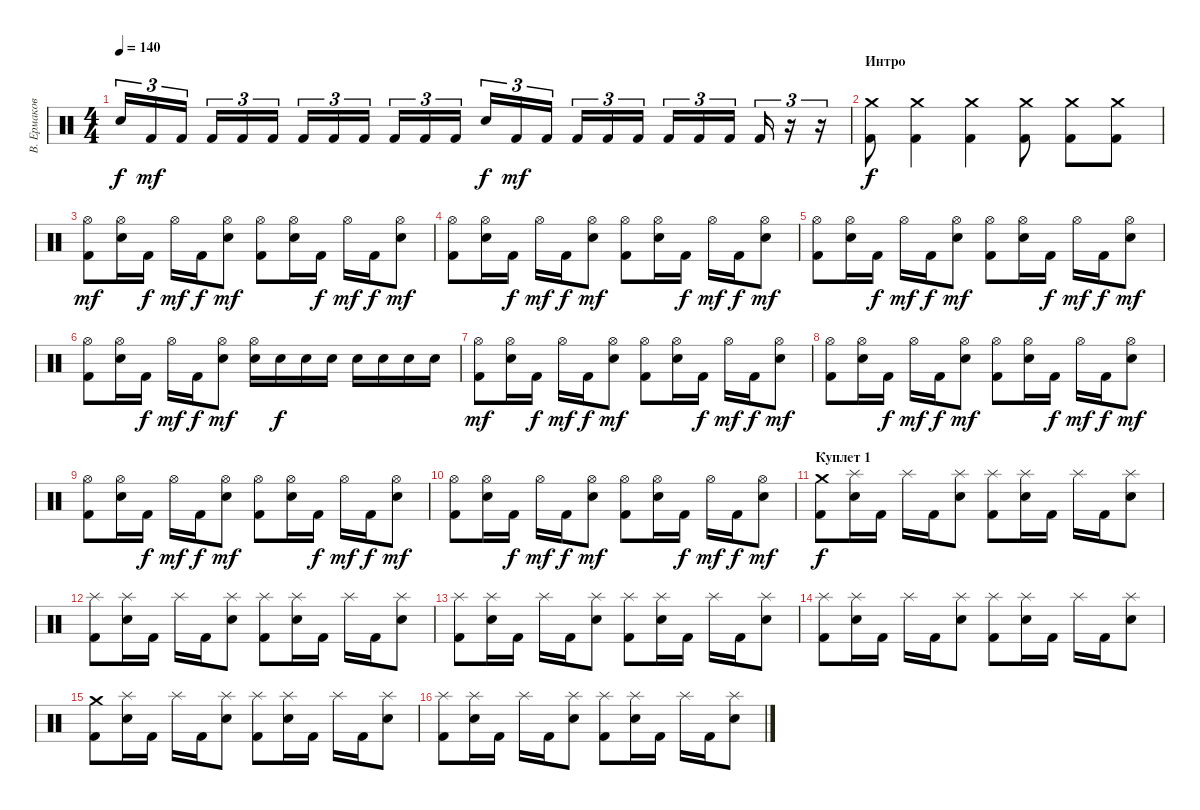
\track ("В. Ермаков" "В. Ермаков") {instrument percussion}
\staff {score}
\articulation defaults
\ts (4 4)
\tempo 140
\clef neutral
\ks c "Electric Snare (hit)".16{tu (3 2) dy f} "Kick (hit) 2".16{tu (3 2) dy mf} "Kick (hit) 2".16{tu (3 2)} "Kick (hit) 2".16{tu (3 2)} "Kick (hit) 2".16{tu (3 2)} "Kick (hit) 2".16{tu (3 2)} "Kick (hit) 2".16{tu (3 2)} "Kick (hit) 2".16{tu (3 2)} "Kick (hit) 2".16{tu (3 2)} "Kick (hit) 2".16{tu (3 2)} "Kick (hit) 2".16{tu (3 2)} "Kick (hit) 2".16{tu (3 2)} "Electric Snare (hit)".16{tu (3 2) dy f} "Kick (hit) 2".16{tu (3 2) dy mf} "Kick (hit) 2".16{tu (3 2)} "Kick (hit) 2".16{tu (3 2)} "Kick (hit) 2".16{tu (3 2)} "Kick (hit) 2".16{tu (3 2)} "Kick (hit) 2".16{tu (3 2)} "Kick (hit) 2".16{tu (3 2)} "Kick (hit) 2".16{tu (3 2)} "Kick (hit) 2".16{tu (3 2)}
r.16{tu (3 2)} r.16{tu (3 2)} |
\section ("" "Интро")
("Crash medium (hit)" "Kick (hit) 2").8{dy f} ("Crash medium (hit)" "Kick (hit) 2").4 ("Crash medium (hit)" "Kick (hit) 2").4 ("Crash medium (hit)" "Kick (hit) 2").8 ("Crash medium (hit)" "Kick (hit) 2").8 ("Crash medium (hit)" "Kick (hit) 2").8 |
("Hi-Hat (open)" "Kick (hit) 2").8{dy mf} ("Hi-Hat (open)" "Electric Snare (hit)").16 "Kick (hit) 2".16{dy f} "Hi-Hat (open)".16{dy mf} "Kick (hit) 2".16{dy f} ("Hi-Hat (open)" "Electric Snare (hit)").8{dy mf} ("Hi-Hat (open)" "Kick (hit) 2").8 ("Hi-Hat (open)" "Electric Snare (hit)").16 "Kick (hit) 2".16{dy f} "Hi-Hat (open)".16{dy mf} "Kick (hit) 2".16{dy f} ("Hi-Hat (open)" "Electric Snare (hit)").8{dy mf} |
("Hi-Hat (open)" "Kick (hit) 2").8 ("Hi-Hat (open)" "Electric Snare (hit)").16 "Kick (hit) 2".16{dy f} "Hi-Hat (open)".16{dy mf} "Kick (hit) 2".16{dy f} ("Hi-Hat (open)" "Electric Snare (hit)").8{dy mf} ("Hi-Hat (open)" "Kick (hit) 2").8 ("Hi-Hat (open)" "Electric Snare (hit)").16 "Kick (hit) 2".16{dy f} "Hi-Hat (open)".16{dy mf} "Kick (hit) 2".16{dy f} ("Hi-Hat (open)" "Electric Snare (hit)").8{dy mf} |
("Hi-Hat (open)" "Kick (hit) 2").8 ("Hi-Hat (open)" "Electric Snare (hit)").16 "Kick (hit) 2".16{dy f} "Hi-Hat (open)".16{dy mf} "Kick (hit) 2".16{dy f} ("Hi-Hat (open)" "Electric Snare (hit)").8{dy mf} ("Hi-Hat (open)" "Kick (hit) 2").8 ("Hi-Hat (open)" "Electric Snare (hit)").16 "Kick (hit) 2".16{dy f} "Hi-Hat (open)".16{dy mf} "Kick (hit) 2".16{dy f} ("Hi-Hat (open)" "Electric Snare (hit)").8{dy mf} |
("Hi-Hat (open)" "Kick (hit) 2").8 ("Hi-Hat (open)" "Electric Snare (hit)").16 "Kick (hit) 2".16{dy f} "Hi-Hat (open)".16{dy mf} "Kick (hit) 2".16{dy f} ("Hi-Hat (open)" "Electric Snare (hit)").8{dy mf} ("Hi-Hat (open)" "Electric Snare (hit)").16 "Electric Snare (hit)".16{dy f} "Electric Snare (hit)".16 "Electric Snare (hit)".16 "Electric Snare (hit)".16 "Electric Snare (hit)".16 "Electric Snare (hit)".16 "Electric Snare (hit)".16 |
("Hi-Hat (open)" "Kick (hit) 2").8{dy mf} ("Hi-Hat (open)" "Electric Snare (hit)").16 "Kick (hit) 2".16{dy f} "Hi-Hat (open)".16{dy mf} "Kick (hit) 2".16{dy f} ("Hi-Hat (open)" "Electric Snare (hit)").8{dy mf} ("Hi-Hat (open)" "Kick (hit) 2").8 ("Hi-Hat (open)" "Electric Snare (hit)").16 "Kick (hit) 2".16{dy f} "Hi-Hat (open)".16{dy mf} "Kick (hit) 2".16{dy f} ("Hi-Hat (open)" "Electric Snare (hit)").8{dy mf} |
("Hi-Hat (open)" "Kick (hit) 2").8 ("Hi-Hat (open)" "Electric Snare (hit)").16 "Kick (hit) 2".16{dy f} "Hi-Hat (open)".16{dy mf} "Kick (hit) 2".16{dy f} ("Hi-Hat (open)" "Electric Snare (hit)").8{dy mf} ("Hi-Hat (open)" "Kick (hit) 2").8 ("Hi-Hat (open)" "Electric Snare (hit)").16 "Kick (hit) 2".16{dy f} "Hi-Hat (open)".16{dy mf} "Kick (hit) 2".16{dy f} ("Hi-Hat (open)" "Electric Snare (hit)").8{dy mf} |
("Hi-Hat (open)" "Kick (hit) 2").8 ("Hi-Hat (open)" "Electric Snare (hit)").16 "Kick (hit) 2".16{dy f} "Hi-Hat (open)".16{dy mf} "Kick (hit) 2".16{dy f} ("Hi-Hat (open)" "Electric Snare (hit)").8{dy mf} ("Hi-Hat (open)" "Kick (hit) 2").8 ("Hi-Hat (open)" "Electric Snare (hit)").16 "Kick (hit) 2".16{dy f} "Hi-Hat (open)".16{dy mf} "Kick (hit) 2".16{dy f} ("Hi-Hat (open)" "Electric Snare (hit)").8{dy mf} |
("Hi-Hat (open)" "Kick (hit) 2").8 ("Hi-Hat (open)" "Electric Snare (hit)").16 "Kick (hit) 2".16{dy f} "Hi-Hat (open)".16{dy mf} "Kick (hit) 2".16{dy f} ("Hi-Hat (open)" "Electric Snare (hit)").8{dy mf} ("Hi-Hat (open)" "Kick (hit) 2").8 ("Hi-Hat (open)" "Electric Snare (hit)").16 "Kick (hit) 2".16{dy f} "Hi-Hat (open)".16{dy mf} "Kick (hit) 2".16{dy f} ("Hi-Hat (open)" "Electric Snare (hit)").8{dy mf} |
\section ("" "Куплет 1")
("Crash medium (hit)" "Kick (hit) 2").8{dy f} ("Splash (hit)" "Electric Snare (hit)").16 "Kick (hit) 2".16 "Splash (hit)".16 "Kick (hit) 2".16 ("Splash (hit)" "Electric Snare (hit)").8 ("Splash (hit)" "Kick (hit) 2").8 ("Splash (hit)" "Electric Snare (hit)").16 "Kick (hit) 2".16 "Splash (hit)".16 "Kick (hit) 2".16 ("Splash (hit)" "Electric Snare (hit)").8 |
("Splash (hit)" "Kick (hit) 2").8 ("Splash (hit)" "Electric Snare (hit)").16 "Kick (hit) 2".16 "Splash (hit)".16 "Kick (hit) 2".16 ("Splash (hit)" "Electric Snare (hit)").8 ("Splash (hit)" "Kick (hit) 2").8 ("Splash (hit)" "Electric Snare (hit)").16 "Kick (hit) 2".16 "Splash (hit)".16 "Kick (hit) 2".16 ("Splash (hit)" "Electric Snare (hit)").8 |
("Splash (hit)" "Kick (hit) 2").8 ("Splash (hit)" "Electric Snare (hit)").16 "Kick (hit) 2".16 "Splash (hit)".16 "Kick (hit) 2".16 ("Splash (hit)" "Electric Snare (hit)").8 ("Splash (hit)" "Kick (hit) 2").8 ("Splash (hit)" "Electric Snare (hit)").16 "Kick (hit) 2".16 "Splash (hit)".16 "Kick (hit) 2".16 ("Splash (hit)" "Electric Snare (hit)").8 |
("Splash (hit)" "Kick (hit) 2").8 ("Splash (hit)" "Electric Snare (hit)").16 "Kick (hit) 2".16 "Splash (hit)".16 "Kick (hit) 2".16 ("Splash (hit)" "Electric Snare (hit)").8 ("Splash (hit)" "Kick (hit) 2").8 ("Splash (hit)" "Electric Snare (hit)").16 "Kick (hit) 2".16 "Splash (hit)".16 "Kick (hit) 2".16 ("Splash (hit)" "Electric Snare (hit)").8 |
("Crash medium (hit)" "Kick (hit) 2").8 ("Splash (hit)" "Electric Snare (hit)").16 "Kick (hit) 2".16 "Splash (hit)".16 "Kick (hit) 2".16 ("Splash (hit)" "Electric Snare (hit)").8 ("Splash (hit)" "Kick (hit) 2").8 ("Splash (hit)" "Electric Snare (hit)").16 "Kick (hit) 2".16 "Splash (hit)".16 "Kick (hit) 2".16 ("Splash (hit)" "Electric Snare (hit)").8 |
("Splash (hit)" "Kick (hit) 2").8 ("Splash (hit)" "Electric Snare (hit)").16 "Kick (hit) 2".16 "Splash (hit)".16 "Kick (hit) 2".16 ("Splash (hit)" "Electric Snare (hit)").8 ("Splash (hit)" "Kick (hit) 2").8 ("Splash (hit)" "Electric Snare (hit)").16 "Kick (hit) 2".16 "Splash (hit)".16 "Kick (hit) 2".16 ("Splash (hit)" "Electric Snare (hit)").8
